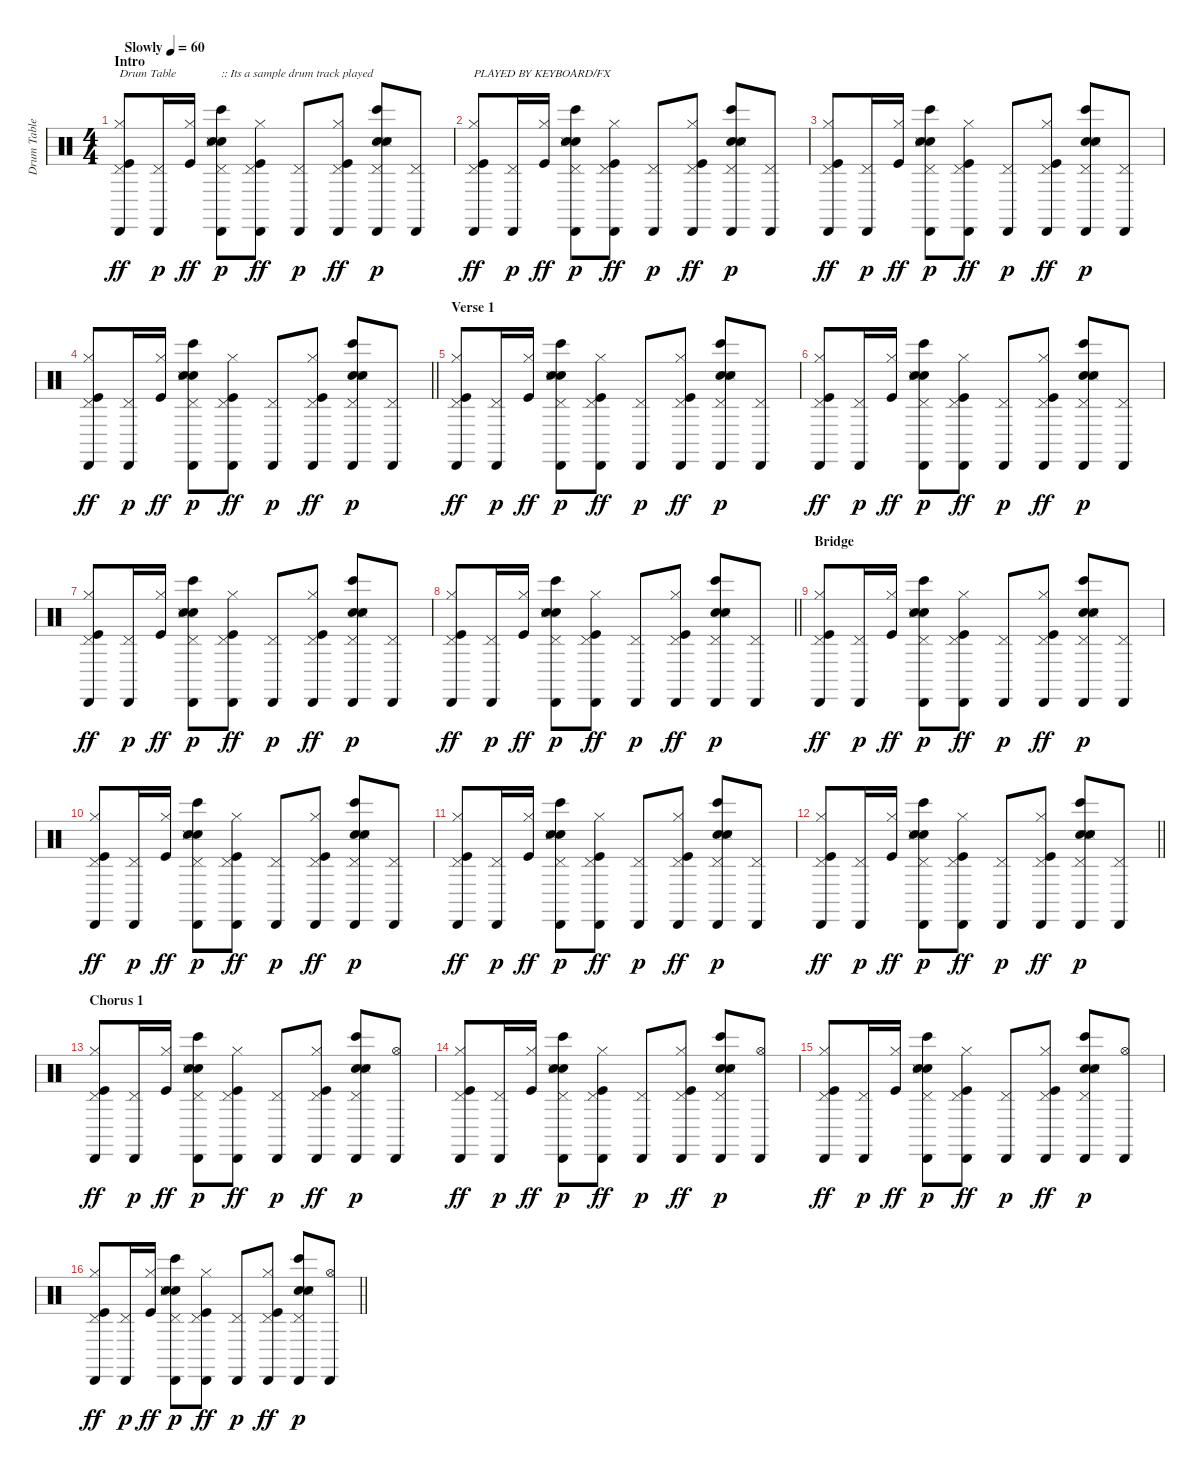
\track ("Drum Table" "Drum Table") {instrument percussion}
\staff {score}
\articulation defaults
\ts (4 4)
\section ("" "Intro")
\tempo (60 "Slowly")
\clef neutral
\ks c
("Pedal Hi-Hat (hit)" "Cabasa (hit)" "Kick (hit)" "Hi-Hat (closed)").8{txt "Drum Table" dy ff} ("Pedal Hi-Hat (hit)" "Cabasa (hit)").16{dy p} ("Kick (hit)" "Hi-Hat (closed)").16{dy ff} ("Hand Clap (hit)" "Bongo High (hit)" "Snare (side stick) 3" "Electric Snare (hit)" "Pedal Hi-Hat (hit)" "Cabasa (hit)").8{txt ":: Its a sample drum track played" dy p} ("Pedal Hi-Hat (hit)" "Cabasa (hit)" "Kick (hit)" "Hi-Hat (closed)").8{dy ff} ("Pedal Hi-Hat (hit)" "Cabasa (hit)").8{dy p} ("Pedal Hi-Hat (hit)" "Cabasa (hit)" "Kick (hit)" "Hi-Hat (closed)").8{dy ff} ("Hand Clap (hit)" "Bongo High (hit)" "Snare (side stick) 3" "Electric Snare (hit)" "Pedal Hi-Hat (hit)" "Cabasa (hit)").8{dy p} ("Pedal Hi-Hat (hit)" "Cabasa (hit)").8 |
("Pedal Hi-Hat (hit)" "Cabasa (hit)" "Kick (hit)" "Hi-Hat (closed)").8{txt "PLAYED BY KEYBOARD/FX" dy ff} ("Pedal Hi-Hat (hit)" "Cabasa (hit)").16{dy p} ("Kick (hit)" "Hi-Hat (closed)").16{dy ff} ("Hand Clap (hit)" "Bongo High (hit)" "Snare (side stick) 3" "Electric Snare (hit)" "Pedal Hi-Hat (hit)" "Cabasa (hit)").8{dy p} ("Pedal Hi-Hat (hit)" "Cabasa (hit)" "Kick (hit)" "Hi-Hat (closed)").8{dy ff} ("Pedal Hi-Hat (hit)" "Cabasa (hit)").8{dy p} ("Pedal Hi-Hat (hit)" "Cabasa (hit)" "Kick (hit)" "Hi-Hat (closed)").8{dy ff} ("Hand Clap (hit)" "Bongo High (hit)" "Snare (side stick) 3" "Electric Snare (hit)" "Pedal Hi-Hat (hit)" "Cabasa (hit)").8{dy p} ("Pedal Hi-Hat (hit)" "Cabasa (hit)").8 |
("Pedal Hi-Hat (hit)" "Cabasa (hit)" "Kick (hit)" "Hi-Hat (closed)").8{dy ff} ("Pedal Hi-Hat (hit)" "Cabasa (hit)").16{dy p} ("Kick (hit)" "Hi-Hat (closed)").16{dy ff} ("Hand Clap (hit)" "Bongo High (hit)" "Snare (side stick) 3" "Electric Snare (hit)" "Pedal Hi-Hat (hit)" "Cabasa (hit)").8{dy p} ("Pedal Hi-Hat (hit)" "Cabasa (hit)" "Kick (hit)" "Hi-Hat (closed)").8{dy ff} ("Pedal Hi-Hat (hit)" "Cabasa (hit)").8{dy p} ("Pedal Hi-Hat (hit)" "Cabasa (hit)" "Kick (hit)" "Hi-Hat (closed)").8{dy ff} ("Hand Clap (hit)" "Bongo High (hit)" "Snare (side stick) 3" "Electric Snare (hit)" "Pedal Hi-Hat (hit)" "Cabasa (hit)").8{dy p} ("Pedal Hi-Hat (hit)" "Cabasa (hit)").8 |
\barLineRight lightlight
("Pedal Hi-Hat (hit)" "Cabasa (hit)" "Kick (hit)" "Hi-Hat (closed)").8{dy ff} ("Pedal Hi-Hat (hit)" "Cabasa (hit)").16{dy p} ("Kick (hit)" "Hi-Hat (closed)").16{dy ff} ("Hand Clap (hit)" "Bongo High (hit)" "Snare (side stick) 3" "Electric Snare (hit)" "Pedal Hi-Hat (hit)" "Cabasa (hit)").8{dy p} ("Pedal Hi-Hat (hit)" "Cabasa (hit)" "Kick (hit)" "Hi-Hat (closed)").8{dy ff} ("Pedal Hi-Hat (hit)" "Cabasa (hit)").8{dy p} ("Pedal Hi-Hat (hit)" "Cabasa (hit)" "Kick (hit)" "Hi-Hat (closed)").8{dy ff} ("Hand Clap (hit)" "Bongo High (hit)" "Snare (side stick) 3" "Electric Snare (hit)" "Pedal Hi-Hat (hit)" "Cabasa (hit)").8{dy p} ("Pedal Hi-Hat (hit)" "Cabasa (hit)").8 |
\section ("" "Verse 1")
("Pedal Hi-Hat (hit)" "Cabasa (hit)" "Kick (hit)" "Hi-Hat (closed)").8{dy ff} ("Pedal Hi-Hat (hit)" "Cabasa (hit)").16{dy p} ("Kick (hit)" "Hi-Hat (closed)").16{dy ff} ("Hand Clap (hit)" "Bongo High (hit)" "Snare (side stick) 3" "Electric Snare (hit)" "Pedal Hi-Hat (hit)" "Cabasa (hit)").8{dy p} ("Pedal Hi-Hat (hit)" "Cabasa (hit)" "Kick (hit)" "Hi-Hat (closed)").8{dy ff} ("Pedal Hi-Hat (hit)" "Cabasa (hit)").8{dy p} ("Pedal Hi-Hat (hit)" "Cabasa (hit)" "Kick (hit)" "Hi-Hat (closed)").8{dy ff} ("Hand Clap (hit)" "Bongo High (hit)" "Snare (side stick) 3" "Electric Snare (hit)" "Pedal Hi-Hat (hit)" "Cabasa (hit)").8{dy p} ("Pedal Hi-Hat (hit)" "Cabasa (hit)").8 |
("Pedal Hi-Hat (hit)" "Cabasa (hit)" "Kick (hit)" "Hi-Hat (closed)").8{dy ff} ("Pedal Hi-Hat (hit)" "Cabasa (hit)").16{dy p} ("Kick (hit)" "Hi-Hat (closed)").16{dy ff} ("Hand Clap (hit)" "Bongo High (hit)" "Snare (side stick) 3" "Electric Snare (hit)" "Pedal Hi-Hat (hit)" "Cabasa (hit)").8{dy p} ("Pedal Hi-Hat (hit)" "Cabasa (hit)" "Kick (hit)" "Hi-Hat (closed)").8{dy ff} ("Pedal Hi-Hat (hit)" "Cabasa (hit)").8{dy p} ("Pedal Hi-Hat (hit)" "Cabasa (hit)" "Kick (hit)" "Hi-Hat (closed)").8{dy ff} ("Hand Clap (hit)" "Bongo High (hit)" "Snare (side stick) 3" "Electric Snare (hit)" "Pedal Hi-Hat (hit)" "Cabasa (hit)").8{dy p} ("Pedal Hi-Hat (hit)" "Cabasa (hit)").8 |
("Pedal Hi-Hat (hit)" "Cabasa (hit)" "Kick (hit)" "Hi-Hat (closed)").8{dy ff} ("Pedal Hi-Hat (hit)" "Cabasa (hit)").16{dy p} ("Kick (hit)" "Hi-Hat (closed)").16{dy ff} ("Hand Clap (hit)" "Bongo High (hit)" "Snare (side stick) 3" "Electric Snare (hit)" "Pedal Hi-Hat (hit)" "Cabasa (hit)").8{dy p} ("Pedal Hi-Hat (hit)" "Cabasa (hit)" "Kick (hit)" "Hi-Hat (closed)").8{dy ff} ("Pedal Hi-Hat (hit)" "Cabasa (hit)").8{dy p} ("Pedal Hi-Hat (hit)" "Cabasa (hit)" "Kick (hit)" "Hi-Hat (closed)").8{dy ff} ("Hand Clap (hit)" "Bongo High (hit)" "Snare (side stick) 3" "Electric Snare (hit)" "Pedal Hi-Hat (hit)" "Cabasa (hit)").8{dy p} ("Pedal Hi-Hat (hit)" "Cabasa (hit)").8 |
\barLineRight lightlight
("Pedal Hi-Hat (hit)" "Cabasa (hit)" "Kick (hit)" "Hi-Hat (closed)").8{dy ff} ("Pedal Hi-Hat (hit)" "Cabasa (hit)").16{dy p} ("Kick (hit)" "Hi-Hat (closed)").16{dy ff} ("Hand Clap (hit)" "Bongo High (hit)" "Snare (side stick) 3" "Electric Snare (hit)" "Pedal Hi-Hat (hit)" "Cabasa (hit)").8{dy p} ("Pedal Hi-Hat (hit)" "Cabasa (hit)" "Kick (hit)" "Hi-Hat (closed)").8{dy ff} ("Pedal Hi-Hat (hit)" "Cabasa (hit)").8{dy p} ("Pedal Hi-Hat (hit)" "Cabasa (hit)" "Kick (hit)" "Hi-Hat (closed)").8{dy ff} ("Hand Clap (hit)" "Bongo High (hit)" "Snare (side stick) 3" "Electric Snare (hit)" "Pedal Hi-Hat (hit)" "Cabasa (hit)").8{dy p} ("Pedal Hi-Hat (hit)" "Cabasa (hit)").8 |
\section ("" "Bridge")
("Pedal Hi-Hat (hit)" "Cabasa (hit)" "Kick (hit)" "Hi-Hat (closed)").8{dy ff} ("Pedal Hi-Hat (hit)" "Cabasa (hit)").16{dy p} ("Kick (hit)" "Hi-Hat (closed)").16{dy ff} ("Hand Clap (hit)" "Bongo High (hit)" "Snare (side stick) 3" "Electric Snare (hit)" "Pedal Hi-Hat (hit)" "Cabasa (hit)").8{dy p} ("Pedal Hi-Hat (hit)" "Cabasa (hit)" "Kick (hit)" "Hi-Hat (closed)").8{dy ff} ("Pedal Hi-Hat (hit)" "Cabasa (hit)").8{dy p} ("Pedal Hi-Hat (hit)" "Cabasa (hit)" "Kick (hit)" "Hi-Hat (closed)").8{dy ff} ("Hand Clap (hit)" "Bongo High (hit)" "Snare (side stick) 3" "Electric Snare (hit)" "Pedal Hi-Hat (hit)" "Cabasa (hit)").8{dy p} ("Pedal Hi-Hat (hit)" "Cabasa (hit)").8 |
("Pedal Hi-Hat (hit)" "Cabasa (hit)" "Kick (hit)" "Hi-Hat (closed)").8{dy ff} ("Pedal Hi-Hat (hit)" "Cabasa (hit)").16{dy p} ("Kick (hit)" "Hi-Hat (closed)").16{dy ff} ("Hand Clap (hit)" "Bongo High (hit)" "Snare (side stick) 3" "Electric Snare (hit)" "Pedal Hi-Hat (hit)" "Cabasa (hit)").8{dy p} ("Pedal Hi-Hat (hit)" "Cabasa (hit)" "Kick (hit)" "Hi-Hat (closed)").8{dy ff} ("Pedal Hi-Hat (hit)" "Cabasa (hit)").8{dy p} ("Pedal Hi-Hat (hit)" "Cabasa (hit)" "Kick (hit)" "Hi-Hat (closed)").8{dy ff} ("Hand Clap (hit)" "Bongo High (hit)" "Snare (side stick) 3" "Electric Snare (hit)" "Pedal Hi-Hat (hit)" "Cabasa (hit)").8{dy p} ("Pedal Hi-Hat (hit)" "Cabasa (hit)").8 |
("Pedal Hi-Hat (hit)" "Cabasa (hit)" "Kick (hit)" "Hi-Hat (closed)").8{dy ff} ("Pedal Hi-Hat (hit)" "Cabasa (hit)").16{dy p} ("Kick (hit)" "Hi-Hat (closed)").16{dy ff} ("Hand Clap (hit)" "Bongo High (hit)" "Snare (side stick) 3" "Electric Snare (hit)" "Pedal Hi-Hat (hit)" "Cabasa (hit)").8{dy p} ("Pedal Hi-Hat (hit)" "Cabasa (hit)" "Kick (hit)" "Hi-Hat (closed)").8{dy ff} ("Pedal Hi-Hat (hit)" "Cabasa (hit)").8{dy p} ("Pedal Hi-Hat (hit)" "Cabasa (hit)" "Kick (hit)" "Hi-Hat (closed)").8{dy ff} ("Hand Clap (hit)" "Bongo High (hit)" "Snare (side stick) 3" "Electric Snare (hit)" "Pedal Hi-Hat (hit)" "Cabasa (hit)").8{dy p} ("Pedal Hi-Hat (hit)" "Cabasa (hit)").8 |
\barLineRight lightlight
("Pedal Hi-Hat (hit)" "Cabasa (hit)" "Kick (hit)" "Hi-Hat (closed)").8{dy ff} ("Pedal Hi-Hat (hit)" "Cabasa (hit)").16{dy p} ("Kick (hit)" "Hi-Hat (closed)").16{dy ff} ("Hand Clap (hit)" "Bongo High (hit)" "Snare (side stick) 3" "Electric Snare (hit)" "Pedal Hi-Hat (hit)" "Cabasa (hit)").8{dy p} ("Pedal Hi-Hat (hit)" "Cabasa (hit)" "Kick (hit)" "Hi-Hat (closed)").8{dy ff} ("Pedal Hi-Hat (hit)" "Cabasa (hit)").8{dy p} ("Pedal Hi-Hat (hit)" "Cabasa (hit)" "Kick (hit)" "Hi-Hat (closed)").8{dy ff} ("Hand Clap (hit)" "Bongo High (hit)" "Snare (side stick) 3" "Electric Snare (hit)" "Pedal Hi-Hat (hit)" "Cabasa (hit)").8{dy p} ("Pedal Hi-Hat (hit)" "Cabasa (hit)").8 |
\section ("" "Chorus 1")
("Pedal Hi-Hat (hit)" "Cabasa (hit)" "Kick (hit)" "Hi-Hat (closed)").8{dy ff} ("Pedal Hi-Hat (hit)" "Cabasa (hit)").16{dy p} ("Kick (hit)" "Hi-Hat (closed)").16{dy ff} ("Hand Clap (hit)" "Bongo High (hit)" "Snare (side stick) 3" "Electric Snare (hit)" "Pedal Hi-Hat (hit)" "Cabasa (hit)").8{dy p} ("Pedal Hi-Hat (hit)" "Cabasa (hit)" "Kick (hit)" "Hi-Hat (closed)").8{dy ff} ("Pedal Hi-Hat (hit)" "Cabasa (hit)").8{dy p} ("Pedal Hi-Hat (hit)" "Cabasa (hit)" "Kick (hit)" "Hi-Hat (closed)").8{dy ff} ("Hand Clap (hit)" "Bongo High (hit)" "Snare (side stick) 3" "Electric Snare (hit)" "Pedal Hi-Hat (hit)" "Cabasa (hit)").8{dy p} ("Hi-Hat (open)" "Cabasa (hit)").8 |
("Pedal Hi-Hat (hit)" "Cabasa (hit)" "Kick (hit)" "Hi-Hat (closed)").8{dy ff} ("Pedal Hi-Hat (hit)" "Cabasa (hit)").16{dy p} ("Kick (hit)" "Hi-Hat (closed)").16{dy ff} ("Hand Clap (hit)" "Bongo High (hit)" "Snare (side stick) 3" "Electric Snare (hit)" "Pedal Hi-Hat (hit)" "Cabasa (hit)").8{dy p} ("Pedal Hi-Hat (hit)" "Cabasa (hit)" "Kick (hit)" "Hi-Hat (closed)").8{dy ff} ("Pedal Hi-Hat (hit)" "Cabasa (hit)").8{dy p} ("Pedal Hi-Hat (hit)" "Cabasa (hit)" "Kick (hit)" "Hi-Hat (closed)").8{dy ff} ("Hand Clap (hit)" "Bongo High (hit)" "Snare (side stick) 3" "Electric Snare (hit)" "Pedal Hi-Hat (hit)" "Cabasa (hit)").8{dy p} ("Hi-Hat (open)" "Cabasa (hit)").8 |
("Pedal Hi-Hat (hit)" "Cabasa (hit)" "Kick (hit)" "Hi-Hat (closed)").8{dy ff} ("Pedal Hi-Hat (hit)" "Cabasa (hit)").16{dy p} ("Kick (hit)" "Hi-Hat (closed)").16{dy ff} ("Hand Clap (hit)" "Bongo High (hit)" "Snare (side stick) 3" "Electric Snare (hit)" "Pedal Hi-Hat (hit)" "Cabasa (hit)").8{dy p} ("Pedal Hi-Hat (hit)" "Cabasa (hit)" "Kick (hit)" "Hi-Hat (closed)").8{dy ff} ("Pedal Hi-Hat (hit)" "Cabasa (hit)").8{dy p} ("Pedal Hi-Hat (hit)" "Cabasa (hit)" "Kick (hit)" "Hi-Hat (closed)").8{dy ff} ("Hand Clap (hit)" "Bongo High (hit)" "Snare (side stick) 3" "Electric Snare (hit)" "Pedal Hi-Hat (hit)" "Cabasa (hit)").8{dy p} ("Hi-Hat (open)" "Cabasa (hit)").8 |
\barLineRight lightlight
("Pedal Hi-Hat (hit)" "Cabasa (hit)" "Kick (hit)" "Hi-Hat (closed)").8{dy ff} ("Pedal Hi-Hat (hit)" "Cabasa (hit)").16{dy p} ("Kick (hit)" "Hi-Hat (closed)").16{dy ff} ("Hand Clap (hit)" "Bongo High (hit)" "Snare (side stick) 3" "Electric Snare (hit)" "Pedal Hi-Hat (hit)" "Cabasa (hit)").8{dy p} ("Pedal Hi-Hat (hit)" "Cabasa (hit)" "Kick (hit)" "Hi-Hat (closed)").8{dy ff} ("Pedal Hi-Hat (hit)" "Cabasa (hit)").8{dy p} ("Pedal Hi-Hat (hit)" "Cabasa (hit)" "Kick (hit)" "Hi-Hat (closed)").8{dy ff} ("Hand Clap (hit)" "Bongo High (hit)" "Snare (side stick) 3" "Electric Snare (hit)" "Pedal Hi-Hat (hit)" "Cabasa (hit)").8{dy p} ("Hi-Hat (open)" "Cabasa (hit)").8
